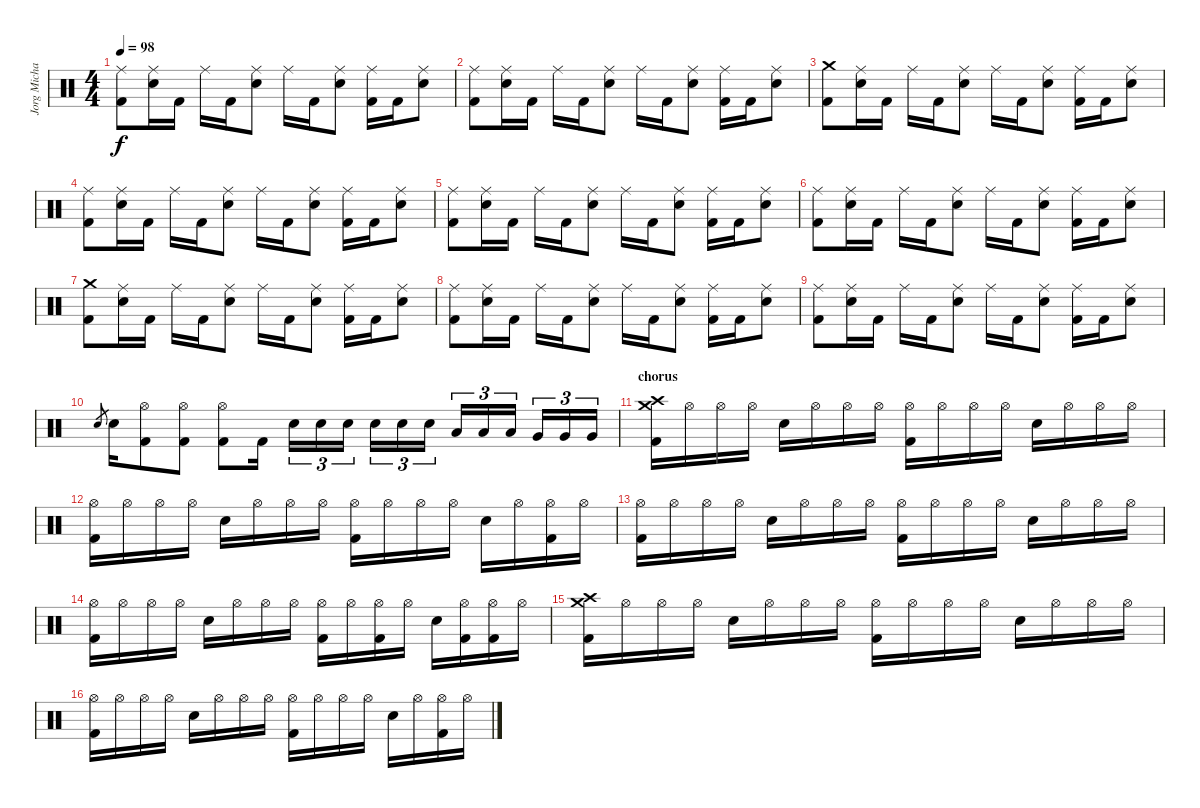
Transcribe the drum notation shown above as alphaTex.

\track ("Jorg Michael" "Jorg Micha") {instrument percussion}
\staff {score}
\articulation defaults
\ts (4 4)
\tempo 98
\clef neutral
\ks c
("Ride (middle)" "Kick (hit) 2").8{dy f} ("Ride (middle)" "Electric Snare (hit)").16 "Kick (hit) 2".16 "Ride (middle)".16 "Kick (hit) 2".16 ("Ride (middle)" "Electric Snare (hit)").8 "Ride (middle)".16 "Kick (hit) 2".16 ("Ride (middle)" "Electric Snare (hit)").8 ("Ride (middle)" "Kick (hit) 2").16 "Kick (hit) 2".16 ("Ride (middle)" "Electric Snare (hit)").8 |
("Ride (middle)" "Kick (hit) 2").8 ("Ride (middle)" "Electric Snare (hit)").16 "Kick (hit) 2".16 "Ride (middle)".16 "Kick (hit) 2".16 ("Ride (middle)" "Electric Snare (hit)").8 "Ride (middle)".16 "Kick (hit) 2".16 ("Ride (middle)" "Electric Snare (hit)").8 ("Ride (middle)" "Kick (hit) 2").16 "Kick (hit) 2".16 ("Ride (middle)" "Electric Snare (hit)").8 |
("Crash medium (hit)" "Kick (hit) 2").8 ("Ride (middle)" "Electric Snare (hit)").16 "Kick (hit) 2".16 "Ride (middle)".16 "Kick (hit) 2".16 ("Ride (middle)" "Electric Snare (hit)").8 "Ride (middle)".16 "Kick (hit) 2".16 ("Ride (middle)" "Electric Snare (hit)").8 ("Ride (middle)" "Kick (hit) 2").16 "Kick (hit) 2".16 ("Ride (middle)" "Electric Snare (hit)").8 |
("Ride (middle)" "Kick (hit) 2").8 ("Ride (middle)" "Electric Snare (hit)").16 "Kick (hit) 2".16 "Ride (middle)".16 "Kick (hit) 2".16 ("Ride (middle)" "Electric Snare (hit)").8 "Ride (middle)".16 "Kick (hit) 2".16 ("Ride (middle)" "Electric Snare (hit)").8 ("Ride (middle)" "Kick (hit) 2").16 "Kick (hit) 2".16 ("Ride (middle)" "Electric Snare (hit)").8 |
("Ride (middle)" "Kick (hit) 2").8 ("Ride (middle)" "Electric Snare (hit)").16 "Kick (hit) 2".16 "Ride (middle)".16 "Kick (hit) 2".16 ("Ride (middle)" "Electric Snare (hit)").8 "Ride (middle)".16 "Kick (hit) 2".16 ("Ride (middle)" "Electric Snare (hit)").8 ("Ride (middle)" "Kick (hit) 2").16 "Kick (hit) 2".16 ("Ride (middle)" "Electric Snare (hit)").8 |
("Ride (middle)" "Kick (hit) 2").8 ("Ride (middle)" "Electric Snare (hit)").16 "Kick (hit) 2".16 "Ride (middle)".16 "Kick (hit) 2".16 ("Ride (middle)" "Electric Snare (hit)").8 "Ride (middle)".16 "Kick (hit) 2".16 ("Ride (middle)" "Electric Snare (hit)").8 ("Ride (middle)" "Kick (hit) 2").16 "Kick (hit) 2".16 ("Ride (middle)" "Electric Snare (hit)").8 |
("Crash medium (hit)" "Kick (hit) 2").8 ("Ride (middle)" "Electric Snare (hit)").16 "Kick (hit) 2".16 "Ride (middle)".16 "Kick (hit) 2".16 ("Ride (middle)" "Electric Snare (hit)").8 "Ride (middle)".16 "Kick (hit) 2".16 ("Ride (middle)" "Electric Snare (hit)").8 ("Ride (middle)" "Kick (hit) 2").16 "Kick (hit) 2".16 ("Ride (middle)" "Electric Snare (hit)").8 |
("Ride (middle)" "Kick (hit) 2").8 ("Ride (middle)" "Electric Snare (hit)").16 "Kick (hit) 2".16 "Ride (middle)".16 "Kick (hit) 2".16 ("Ride (middle)" "Electric Snare (hit)").8 "Ride (middle)".16 "Kick (hit) 2".16 ("Ride (middle)" "Electric Snare (hit)").8 ("Ride (middle)" "Kick (hit) 2").16 "Kick (hit) 2".16 ("Ride (middle)" "Electric Snare (hit)").8 |
("Ride (middle)" "Kick (hit) 2").8 ("Ride (middle)" "Electric Snare (hit)").16 "Kick (hit) 2".16 "Ride (middle)".16 "Kick (hit) 2".16 ("Ride (middle)" "Electric Snare (hit)").8 "Ride (middle)".16 "Kick (hit) 2".16 ("Ride (middle)" "Electric Snare (hit)").8 ("Ride (middle)" "Kick (hit) 2").16 "Kick (hit) 2".16 ("Ride (middle)" "Electric Snare (hit)").8 |
"Electric Snare (hit)".8{gr} "Electric Snare (hit)".16 ("Hi-Hat (open)" "Kick (hit) 2").8 ("Hi-Hat (open)" "Kick (hit) 2").8 ("Hi-Hat (open)" "Kick (hit) 2").8 "Kick (hit) 2".16 "Electric Snare (hit)".16{tu (3 2)} "Electric Snare (hit)".16{tu (3 2)} "Electric Snare (hit)".16{tu (3 2)} "Electric Snare (hit)".16{tu (3 2)} "Electric Snare (hit)".16{tu (3 2)} "Electric Snare (hit)".16{tu (3 2)} "Low Tom (hit)".16{tu (3 2)} "Low Tom (hit)".16{tu (3 2)} "Low Tom (hit)".16{tu (3 2)} "Very Low Tom (hit)".16{tu (3 2)} "Very Low Tom (hit)".16{tu (3 2)} "Very Low Tom (hit)".16{tu (3 2)} |
\section ("" "chorus")
("Crash medium (hit)" "Crash high (hit)" "Kick (hit) 2").16 "Hi-Hat (open)".16 "Hi-Hat (open)".16 "Hi-Hat (open)".16 "Electric Snare (hit)".16 "Hi-Hat (open)".16 "Hi-Hat (open)".16 "Hi-Hat (open)".16 ("Hi-Hat (open)" "Kick (hit) 2").16 "Hi-Hat (open)".16 "Hi-Hat (open)".16 "Hi-Hat (open)".16 "Electric Snare (hit)".16 "Hi-Hat (open)".16 "Hi-Hat (open)".16 "Hi-Hat (open)".16 |
("Hi-Hat (open)" "Kick (hit) 2").16 "Hi-Hat (open)".16 "Hi-Hat (open)".16 "Hi-Hat (open)".16 "Electric Snare (hit)".16 "Hi-Hat (open)".16 "Hi-Hat (open)".16 "Hi-Hat (open)".16 ("Hi-Hat (open)" "Kick (hit) 2").16 "Hi-Hat (open)".16 "Hi-Hat (open)".16 "Hi-Hat (open)".16 "Electric Snare (hit)".16 "Hi-Hat (open)".16 ("Hi-Hat (open)" "Kick (hit) 2").16 "Hi-Hat (open)".16 |
("Hi-Hat (open)" "Kick (hit) 2").16 "Hi-Hat (open)".16 "Hi-Hat (open)".16 "Hi-Hat (open)".16 "Electric Snare (hit)".16 "Hi-Hat (open)".16 "Hi-Hat (open)".16 "Hi-Hat (open)".16 ("Hi-Hat (open)" "Kick (hit) 2").16 "Hi-Hat (open)".16 "Hi-Hat (open)".16 "Hi-Hat (open)".16 "Electric Snare (hit)".16 "Hi-Hat (open)".16 "Hi-Hat (open)".16 "Hi-Hat (open)".16 |
("Hi-Hat (open)" "Kick (hit) 2").16 "Hi-Hat (open)".16 "Hi-Hat (open)".16 "Hi-Hat (open)".16 "Electric Snare (hit)".16 "Hi-Hat (open)".16 "Hi-Hat (open)".16 "Hi-Hat (open)".16 ("Hi-Hat (open)" "Kick (hit) 2").16 "Hi-Hat (open)".16 ("Hi-Hat (open)" "Kick (hit) 2").16 "Hi-Hat (open)".16 "Electric Snare (hit)".16 ("Hi-Hat (open)" "Kick (hit) 2").16 ("Hi-Hat (open)" "Kick (hit) 2").16 "Hi-Hat (open)".16 |
("Crash medium (hit)" "Crash high (hit)" "Kick (hit) 2").16 "Hi-Hat (open)".16 "Hi-Hat (open)".16 "Hi-Hat (open)".16 "Electric Snare (hit)".16 "Hi-Hat (open)".16 "Hi-Hat (open)".16 "Hi-Hat (open)".16 ("Hi-Hat (open)" "Kick (hit) 2").16 "Hi-Hat (open)".16 "Hi-Hat (open)".16 "Hi-Hat (open)".16 "Electric Snare (hit)".16 "Hi-Hat (open)".16 "Hi-Hat (open)".16 "Hi-Hat (open)".16 |
("Hi-Hat (open)" "Kick (hit) 2").16 "Hi-Hat (open)".16 "Hi-Hat (open)".16 "Hi-Hat (open)".16 "Electric Snare (hit)".16 "Hi-Hat (open)".16 "Hi-Hat (open)".16 "Hi-Hat (open)".16 ("Hi-Hat (open)" "Kick (hit) 2").16 "Hi-Hat (open)".16 "Hi-Hat (open)".16 "Hi-Hat (open)".16 "Electric Snare (hit)".16 "Hi-Hat (open)".16 ("Hi-Hat (open)" "Kick (hit) 2").16 "Hi-Hat (open)".16
